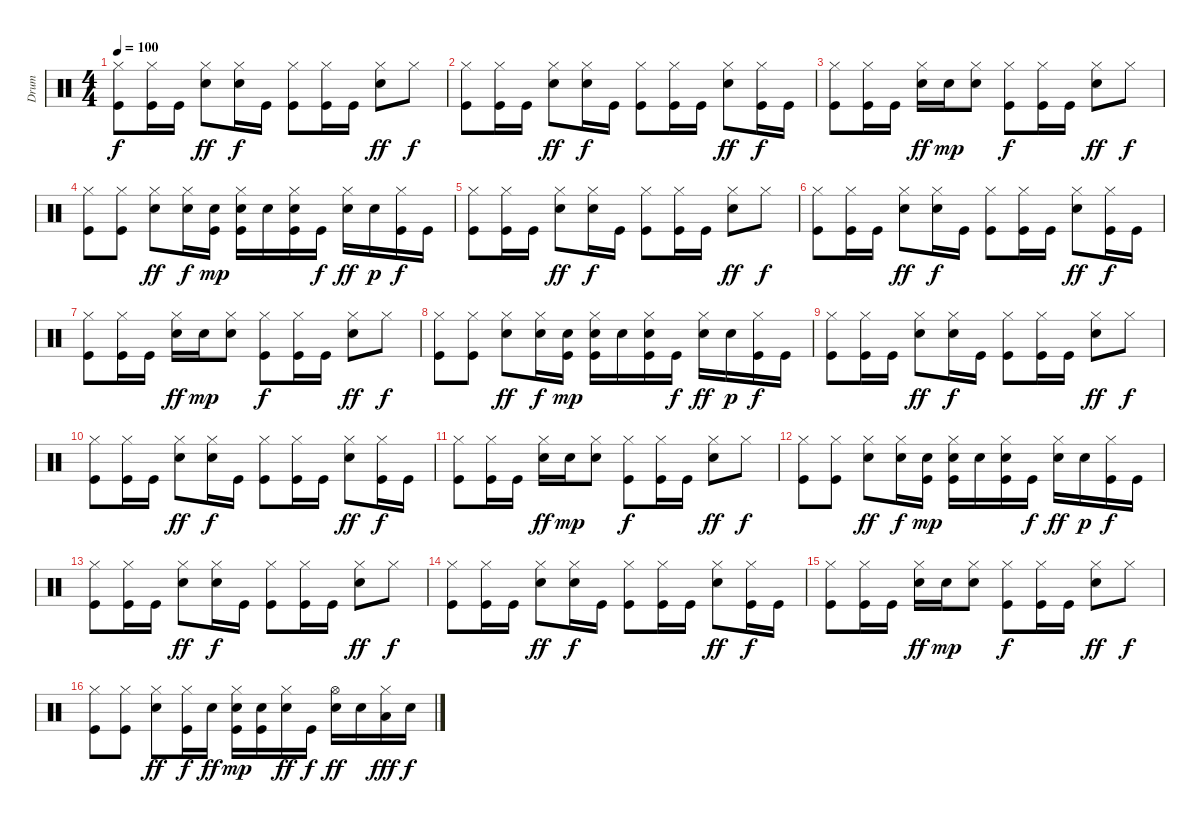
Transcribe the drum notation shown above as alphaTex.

\track ("Drum" "Drum") {instrument percussion}
\staff {score}
\articulation defaults
\ts (4 4)
\tempo 100
\clef neutral
\ks c
("Hi-Hat (closed)" "Kick (hit)").8{dy f} ("Hi-Hat (closed)" "Kick (hit)").16 "Kick (hit)".16 ("Hi-Hat (closed)" "Snare (hit) 2").8{dy ff} ("Hi-Hat (closed)" "Snare (hit) 2").16{dy f} "Kick (hit)".16 ("Hi-Hat (closed)" "Kick (hit)").8 ("Hi-Hat (closed)" "Kick (hit)").16 "Kick (hit)".16 ("Hi-Hat (closed)" "Snare (hit) 2").8{dy ff} "Hi-Hat (closed)".8{dy f} |
("Hi-Hat (closed)" "Kick (hit)").8 ("Hi-Hat (closed)" "Kick (hit)").16 "Kick (hit)".16 ("Hi-Hat (closed)" "Snare (hit) 2").8{dy ff} ("Hi-Hat (closed)" "Snare (hit) 2").16{dy f} "Kick (hit)".16 ("Hi-Hat (closed)" "Kick (hit)").8 ("Hi-Hat (closed)" "Kick (hit)").16 "Kick (hit)".16 ("Hi-Hat (closed)" "Snare (hit) 2").8{dy ff} ("Hi-Hat (closed)" "Kick (hit)").16{dy f} "Kick (hit)".16 |
("Hi-Hat (closed)" "Kick (hit)").8 ("Hi-Hat (closed)" "Kick (hit)").16 "Kick (hit)".16 ("Hi-Hat (closed)" "Snare (hit) 2").16{dy ff} "Snare (hit) 2".16{dy mp} ("Hi-Hat (closed)" "Snare (hit) 2").8 ("Hi-Hat (closed)" "Kick (hit)").8{dy f} ("Hi-Hat (closed)" "Kick (hit)").16 "Kick (hit)".16 ("Hi-Hat (closed)" "Snare (hit) 2").8{dy ff} "Hi-Hat (closed)".8{dy f} |
("Hi-Hat (closed)" "Kick (hit)").8 ("Hi-Hat (closed)" "Kick (hit)").8 ("Hi-Hat (closed)" "Snare (hit) 2").8{dy ff} ("Hi-Hat (closed)" "Snare (hit) 2").16{dy f} ("Snare (hit) 2" "Kick (hit)").16{dy mp} ("Hi-Hat (closed)" "Snare (hit) 2" "Kick (hit)").16 "Snare (hit) 2".16 ("Hi-Hat (closed)" "Snare (hit) 2" "Kick (hit)").16 "Kick (hit)".16{dy f} ("Hi-Hat (closed)" "Snare (hit) 2").16{dy ff} "Snare (hit) 2".16{dy p} ("Hi-Hat (closed)" "Kick (hit)").16{dy f} "Kick (hit)".16 |
("Hi-Hat (closed)" "Kick (hit)").8 ("Hi-Hat (closed)" "Kick (hit)").16 "Kick (hit)".16 ("Hi-Hat (closed)" "Snare (hit) 2").8{dy ff} ("Hi-Hat (closed)" "Snare (hit) 2").16{dy f} "Kick (hit)".16 ("Hi-Hat (closed)" "Kick (hit)").8 ("Hi-Hat (closed)" "Kick (hit)").16 "Kick (hit)".16 ("Hi-Hat (closed)" "Snare (hit) 2").8{dy ff} "Hi-Hat (closed)".8{dy f} |
("Hi-Hat (closed)" "Kick (hit)").8 ("Hi-Hat (closed)" "Kick (hit)").16 "Kick (hit)".16 ("Hi-Hat (closed)" "Snare (hit) 2").8{dy ff} ("Hi-Hat (closed)" "Snare (hit) 2").16{dy f} "Kick (hit)".16 ("Hi-Hat (closed)" "Kick (hit)").8 ("Hi-Hat (closed)" "Kick (hit)").16 "Kick (hit)".16 ("Hi-Hat (closed)" "Snare (hit) 2").8{dy ff} ("Hi-Hat (closed)" "Kick (hit)").16{dy f} "Kick (hit)".16 |
("Hi-Hat (closed)" "Kick (hit)").8 ("Hi-Hat (closed)" "Kick (hit)").16 "Kick (hit)".16 ("Hi-Hat (closed)" "Snare (hit) 2").16{dy ff} "Snare (hit) 2".16{dy mp} ("Hi-Hat (closed)" "Snare (hit) 2").8 ("Hi-Hat (closed)" "Kick (hit)").8{dy f} ("Hi-Hat (closed)" "Kick (hit)").16 "Kick (hit)".16 ("Hi-Hat (closed)" "Snare (hit) 2").8{dy ff} "Hi-Hat (closed)".8{dy f} |
("Hi-Hat (closed)" "Kick (hit)").8 ("Hi-Hat (closed)" "Kick (hit)").8 ("Hi-Hat (closed)" "Snare (hit) 2").8{dy ff} ("Hi-Hat (closed)" "Snare (hit) 2").16{dy f} ("Snare (hit) 2" "Kick (hit)").16{dy mp} ("Hi-Hat (closed)" "Snare (hit) 2" "Kick (hit)").16 "Snare (hit) 2".16 ("Hi-Hat (closed)" "Snare (hit) 2" "Kick (hit)").16 "Kick (hit)".16{dy f} ("Hi-Hat (closed)" "Snare (hit) 2").16{dy ff} "Snare (hit) 2".16{dy p} ("Hi-Hat (closed)" "Kick (hit)").16{dy f} "Kick (hit)".16 |
("Hi-Hat (closed)" "Kick (hit)").8 ("Hi-Hat (closed)" "Kick (hit)").16 "Kick (hit)".16 ("Hi-Hat (closed)" "Snare (hit) 2").8{dy ff} ("Hi-Hat (closed)" "Snare (hit) 2").16{dy f} "Kick (hit)".16 ("Hi-Hat (closed)" "Kick (hit)").8 ("Hi-Hat (closed)" "Kick (hit)").16 "Kick (hit)".16 ("Hi-Hat (closed)" "Snare (hit) 2").8{dy ff} "Hi-Hat (closed)".8{dy f} |
("Hi-Hat (closed)" "Kick (hit)").8 ("Hi-Hat (closed)" "Kick (hit)").16 "Kick (hit)".16 ("Hi-Hat (closed)" "Snare (hit) 2").8{dy ff} ("Hi-Hat (closed)" "Snare (hit) 2").16{dy f} "Kick (hit)".16 ("Hi-Hat (closed)" "Kick (hit)").8 ("Hi-Hat (closed)" "Kick (hit)").16 "Kick (hit)".16 ("Hi-Hat (closed)" "Snare (hit) 2").8{dy ff} ("Hi-Hat (closed)" "Kick (hit)").16{dy f} "Kick (hit)".16 |
("Hi-Hat (closed)" "Kick (hit)").8 ("Hi-Hat (closed)" "Kick (hit)").16 "Kick (hit)".16 ("Hi-Hat (closed)" "Snare (hit) 2").16{dy ff} "Snare (hit) 2".16{dy mp} ("Hi-Hat (closed)" "Snare (hit) 2").8 ("Hi-Hat (closed)" "Kick (hit)").8{dy f} ("Hi-Hat (closed)" "Kick (hit)").16 "Kick (hit)".16 ("Hi-Hat (closed)" "Snare (hit) 2").8{dy ff} "Hi-Hat (closed)".8{dy f} |
("Hi-Hat (closed)" "Kick (hit)").8 ("Hi-Hat (closed)" "Kick (hit)").8 ("Hi-Hat (closed)" "Snare (hit) 2").8{dy ff} ("Hi-Hat (closed)" "Snare (hit) 2").16{dy f} ("Snare (hit) 2" "Kick (hit)").16{dy mp} ("Hi-Hat (closed)" "Snare (hit) 2" "Kick (hit)").16 "Snare (hit) 2".16 ("Hi-Hat (closed)" "Snare (hit) 2" "Kick (hit)").16 "Kick (hit)".16{dy f} ("Hi-Hat (closed)" "Snare (hit) 2").16{dy ff} "Snare (hit) 2".16{dy p} ("Hi-Hat (closed)" "Kick (hit)").16{dy f} "Kick (hit)".16 |
("Hi-Hat (closed)" "Kick (hit)").8 ("Hi-Hat (closed)" "Kick (hit)").16 "Kick (hit)".16 ("Hi-Hat (closed)" "Snare (hit) 2").8{dy ff} ("Hi-Hat (closed)" "Snare (hit) 2").16{dy f} "Kick (hit)".16 ("Hi-Hat (closed)" "Kick (hit)").8 ("Hi-Hat (closed)" "Kick (hit)").16 "Kick (hit)".16 ("Hi-Hat (closed)" "Snare (hit) 2").8{dy ff} "Hi-Hat (closed)".8{dy f} |
("Hi-Hat (closed)" "Kick (hit)").8 ("Hi-Hat (closed)" "Kick (hit)").16 "Kick (hit)".16 ("Hi-Hat (closed)" "Snare (hit) 2").8{dy ff} ("Hi-Hat (closed)" "Snare (hit) 2").16{dy f} "Kick (hit)".16 ("Hi-Hat (closed)" "Kick (hit)").8 ("Hi-Hat (closed)" "Kick (hit)").16 "Kick (hit)".16 ("Hi-Hat (closed)" "Snare (hit) 2").8{dy ff} ("Hi-Hat (closed)" "Kick (hit)").16{dy f} "Kick (hit)".16 |
("Hi-Hat (closed)" "Kick (hit)").8 ("Hi-Hat (closed)" "Kick (hit)").16 "Kick (hit)".16 ("Hi-Hat (closed)" "Snare (hit) 2").16{dy ff} "Snare (hit) 2".16{dy mp} ("Hi-Hat (closed)" "Snare (hit) 2").8 ("Hi-Hat (closed)" "Kick (hit)").8{dy f} ("Hi-Hat (closed)" "Kick (hit)").16 "Kick (hit)".16 ("Hi-Hat (closed)" "Snare (hit) 2").8{dy ff} "Hi-Hat (closed)".8{dy f} |
("Hi-Hat (closed)" "Kick (hit)").8 ("Hi-Hat (closed)" "Kick (hit)").8 ("Hi-Hat (closed)" "Snare (hit) 2").8{dy ff} ("Hi-Hat (closed)" "Kick (hit)").16{dy f} "Snare (hit) 2".16{dy ff} ("Hi-Hat (closed)" "Snare (hit) 2" "Kick (hit)").16{dy mp} ("Snare (hit) 2" "Kick (hit)").16 ("Hi-Hat (closed)" "Snare (hit) 2").16{dy ff} "Kick (hit)".16{dy f} ("Hi-Hat (open)" "Snare (hit) 2").16{dy ff} "Snare (hit) 2".16 ("Hi-Hat (closed)" "Low Floor Tom (hit)").16{dy fff} "Snare (hit) 2".16{dy f}
